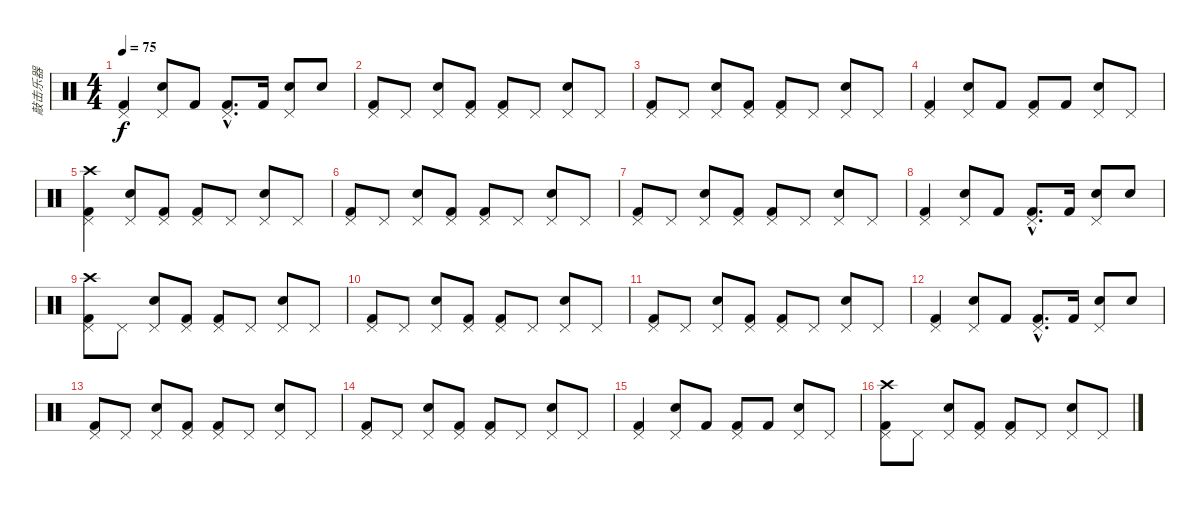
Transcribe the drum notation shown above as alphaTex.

\track ("敲击乐器" "敲击乐器") {instrument percussion}
\staff {score}
\articulation defaults
\ts (4 4)
\tempo 75
\clef neutral
\ks c
("Pedal Hi-Hat (hit)" "Kick (hit) 2").4{dy f} ("Pedal Hi-Hat (hit)" "Metronome (bell)").8 "Kick (hit) 2".8 ("Pedal Hi-Hat (hit)"{hac} "Kick (hit) 2"{hac}).8{d} "Kick (hit) 2".16 ("Pedal Hi-Hat (hit)" "Metronome (bell)").8 "Metronome (bell)".8 |
("Pedal Hi-Hat (hit)" "Kick (hit) 2").8 "Pedal Hi-Hat (hit)".8 ("Pedal Hi-Hat (hit)" "Metronome (bell)").8 ("Pedal Hi-Hat (hit)" "Kick (hit) 2").8 ("Pedal Hi-Hat (hit)" "Kick (hit) 2").8 "Pedal Hi-Hat (hit)".8 ("Pedal Hi-Hat (hit)" "Metronome (bell)").8 "Pedal Hi-Hat (hit)".8 |
("Pedal Hi-Hat (hit)" "Kick (hit) 2").8 "Pedal Hi-Hat (hit)".8 ("Pedal Hi-Hat (hit)" "Metronome (bell)").8 ("Pedal Hi-Hat (hit)" "Kick (hit) 2").8 ("Pedal Hi-Hat (hit)" "Kick (hit) 2").8 "Pedal Hi-Hat (hit)".8 ("Pedal Hi-Hat (hit)" "Metronome (bell)").8 "Pedal Hi-Hat (hit)".8 |
("Pedal Hi-Hat (hit)" "Kick (hit) 2").4 ("Pedal Hi-Hat (hit)" "Metronome (bell)").8 "Kick (hit) 2".8 ("Pedal Hi-Hat (hit)" "Kick (hit) 2").8 "Kick (hit) 2".8 ("Pedal Hi-Hat (hit)" "Metronome (bell)").8 "Pedal Hi-Hat (hit)".8 |
("Crash high (hit)" "Pedal Hi-Hat (hit)" "Kick (hit) 2").4 ("Pedal Hi-Hat (hit)" "Metronome (bell)").8 ("Pedal Hi-Hat (hit)" "Kick (hit) 2").8 ("Pedal Hi-Hat (hit)" "Kick (hit) 2").8 "Pedal Hi-Hat (hit)".8 ("Pedal Hi-Hat (hit)" "Metronome (bell)").8 "Pedal Hi-Hat (hit)".8 |
("Pedal Hi-Hat (hit)" "Kick (hit) 2").8 "Pedal Hi-Hat (hit)".8 ("Pedal Hi-Hat (hit)" "Metronome (bell)").8 ("Pedal Hi-Hat (hit)" "Kick (hit) 2").8 ("Pedal Hi-Hat (hit)" "Kick (hit) 2").8 "Pedal Hi-Hat (hit)".8 ("Pedal Hi-Hat (hit)" "Metronome (bell)").8 "Pedal Hi-Hat (hit)".8 |
("Pedal Hi-Hat (hit)" "Kick (hit) 2").8 "Pedal Hi-Hat (hit)".8 ("Pedal Hi-Hat (hit)" "Metronome (bell)").8 ("Pedal Hi-Hat (hit)" "Kick (hit) 2").8 ("Pedal Hi-Hat (hit)" "Kick (hit) 2").8 "Pedal Hi-Hat (hit)".8 ("Pedal Hi-Hat (hit)" "Metronome (bell)").8 "Pedal Hi-Hat (hit)".8 |
("Pedal Hi-Hat (hit)" "Kick (hit) 2").4 ("Pedal Hi-Hat (hit)" "Metronome (bell)").8 "Kick (hit) 2".8 ("Pedal Hi-Hat (hit)"{hac} "Kick (hit) 2"{hac}).8{d} "Kick (hit) 2".16 ("Pedal Hi-Hat (hit)" "Metronome (bell)").8 "Metronome (bell)".8 |
("Crash high (hit)" "Pedal Hi-Hat (hit)" "Kick (hit) 2").8 "Pedal Hi-Hat (hit)".8 ("Pedal Hi-Hat (hit)" "Metronome (bell)").8 ("Pedal Hi-Hat (hit)" "Kick (hit) 2").8 ("Pedal Hi-Hat (hit)" "Kick (hit) 2").8 "Pedal Hi-Hat (hit)".8 ("Pedal Hi-Hat (hit)" "Metronome (bell)").8 "Pedal Hi-Hat (hit)".8 |
("Pedal Hi-Hat (hit)" "Kick (hit) 2").8 "Pedal Hi-Hat (hit)".8 ("Pedal Hi-Hat (hit)" "Metronome (bell)").8 ("Pedal Hi-Hat (hit)" "Kick (hit) 2").8 ("Pedal Hi-Hat (hit)" "Kick (hit) 2").8 "Pedal Hi-Hat (hit)".8 ("Pedal Hi-Hat (hit)" "Metronome (bell)").8 "Pedal Hi-Hat (hit)".8 |
("Pedal Hi-Hat (hit)" "Kick (hit) 2").8 "Pedal Hi-Hat (hit)".8 ("Pedal Hi-Hat (hit)" "Metronome (bell)").8 ("Pedal Hi-Hat (hit)" "Kick (hit) 2").8 ("Pedal Hi-Hat (hit)" "Kick (hit) 2").8 "Pedal Hi-Hat (hit)".8 ("Pedal Hi-Hat (hit)" "Metronome (bell)").8 "Pedal Hi-Hat (hit)".8 |
("Pedal Hi-Hat (hit)" "Kick (hit) 2").4 ("Pedal Hi-Hat (hit)" "Metronome (bell)").8 "Kick (hit) 2".8 ("Pedal Hi-Hat (hit)"{hac} "Kick (hit) 2"{hac}).8{d} "Kick (hit) 2".16 ("Pedal Hi-Hat (hit)" "Metronome (bell)").8 "Metronome (bell)".8 |
("Pedal Hi-Hat (hit)" "Kick (hit) 2").8 "Pedal Hi-Hat (hit)".8 ("Pedal Hi-Hat (hit)" "Metronome (bell)").8 ("Pedal Hi-Hat (hit)" "Kick (hit) 2").8 ("Pedal Hi-Hat (hit)" "Kick (hit) 2").8 "Pedal Hi-Hat (hit)".8 ("Pedal Hi-Hat (hit)" "Metronome (bell)").8 "Pedal Hi-Hat (hit)".8 |
("Pedal Hi-Hat (hit)" "Kick (hit) 2").8 "Pedal Hi-Hat (hit)".8 ("Pedal Hi-Hat (hit)" "Metronome (bell)").8 ("Pedal Hi-Hat (hit)" "Kick (hit) 2").8 ("Pedal Hi-Hat (hit)" "Kick (hit) 2").8 "Pedal Hi-Hat (hit)".8 ("Pedal Hi-Hat (hit)" "Metronome (bell)").8 "Pedal Hi-Hat (hit)".8 |
("Pedal Hi-Hat (hit)" "Kick (hit) 2").4 ("Pedal Hi-Hat (hit)" "Metronome (bell)").8 "Kick (hit) 2".8 ("Pedal Hi-Hat (hit)" "Kick (hit) 2").8 "Kick (hit) 2".8 ("Pedal Hi-Hat (hit)" "Metronome (bell)").8 "Pedal Hi-Hat (hit)".8 |
("Crash high (hit)" "Pedal Hi-Hat (hit)" "Kick (hit) 2").8 "Pedal Hi-Hat (hit)".8 ("Pedal Hi-Hat (hit)" "Metronome (bell)").8 ("Pedal Hi-Hat (hit)" "Kick (hit) 2").8 ("Pedal Hi-Hat (hit)" "Kick (hit) 2").8 "Pedal Hi-Hat (hit)".8 ("Pedal Hi-Hat (hit)" "Metronome (bell)").8 "Pedal Hi-Hat (hit)".8
